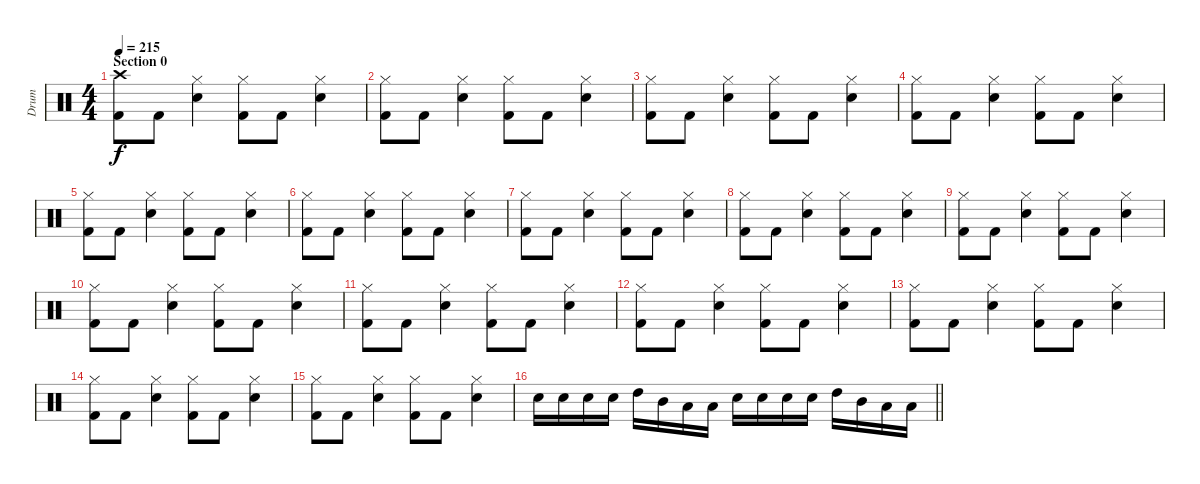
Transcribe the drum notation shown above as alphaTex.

\track ("Drum" "Drum") {instrument percussion}
\staff {score}
\articulation defaults
\ts (4 4)
\section ("" "Section 0")
\tempo 215
\clef neutral
\ks c
("Kick (hit) 2" "Crash high (hit)").8{dy f} "Kick (hit) 2".8 ("Electric Snare (hit)" "Hi-Hat (closed)").4 ("Kick (hit) 2" "Hi-Hat (closed)").8 "Kick (hit) 2".8 ("Electric Snare (hit)" "Hi-Hat (closed)").4 |
("Kick (hit) 2" "Hi-Hat (closed)").8 "Kick (hit) 2".8 ("Electric Snare (hit)" "Hi-Hat (closed)").4 ("Kick (hit) 2" "Hi-Hat (closed)").8 "Kick (hit) 2".8 ("Electric Snare (hit)" "Hi-Hat (closed)").4 |
("Kick (hit) 2" "Hi-Hat (closed)").8 "Kick (hit) 2".8 ("Electric Snare (hit)" "Hi-Hat (closed)").4 ("Kick (hit) 2" "Hi-Hat (closed)").8 "Kick (hit) 2".8 ("Electric Snare (hit)" "Hi-Hat (closed)").4 |
("Kick (hit) 2" "Hi-Hat (closed)").8 "Kick (hit) 2".8 ("Electric Snare (hit)" "Hi-Hat (closed)").4 ("Kick (hit) 2" "Hi-Hat (closed)").8 "Kick (hit) 2".8 ("Electric Snare (hit)" "Hi-Hat (closed)").4 |
("Kick (hit) 2" "Hi-Hat (closed)").8 "Kick (hit) 2".8 ("Electric Snare (hit)" "Hi-Hat (closed)").4 ("Kick (hit) 2" "Hi-Hat (closed)").8 "Kick (hit) 2".8 ("Electric Snare (hit)" "Hi-Hat (closed)").4 |
("Kick (hit) 2" "Hi-Hat (closed)").8 "Kick (hit) 2".8 ("Electric Snare (hit)" "Hi-Hat (closed)").4 ("Kick (hit) 2" "Hi-Hat (closed)").8 "Kick (hit) 2".8 ("Electric Snare (hit)" "Hi-Hat (closed)").4 |
("Kick (hit) 2" "Hi-Hat (closed)").8 "Kick (hit) 2".8 ("Electric Snare (hit)" "Hi-Hat (closed)").4 ("Kick (hit) 2" "Hi-Hat (closed)").8 "Kick (hit) 2".8 ("Electric Snare (hit)" "Hi-Hat (closed)").4 |
("Kick (hit) 2" "Hi-Hat (closed)").8 "Kick (hit) 2".8 ("Electric Snare (hit)" "Hi-Hat (closed)").4 ("Kick (hit) 2" "Hi-Hat (closed)").8 "Kick (hit) 2".8 ("Electric Snare (hit)" "Hi-Hat (closed)").4 |
("Kick (hit) 2" "Hi-Hat (closed)").8 "Kick (hit) 2".8 ("Electric Snare (hit)" "Hi-Hat (closed)").4 ("Kick (hit) 2" "Hi-Hat (closed)").8 "Kick (hit) 2".8 ("Electric Snare (hit)" "Hi-Hat (closed)").4 |
("Kick (hit) 2" "Hi-Hat (closed)").8 "Kick (hit) 2".8 ("Electric Snare (hit)" "Hi-Hat (closed)").4 ("Kick (hit) 2" "Hi-Hat (closed)").8 "Kick (hit) 2".8 ("Electric Snare (hit)" "Hi-Hat (closed)").4 |
("Kick (hit) 2" "Hi-Hat (closed)").8 "Kick (hit) 2".8 ("Electric Snare (hit)" "Hi-Hat (closed)").4 ("Kick (hit) 2" "Hi-Hat (closed)").8 "Kick (hit) 2".8 ("Electric Snare (hit)" "Hi-Hat (closed)").4 |
("Kick (hit) 2" "Hi-Hat (closed)").8 "Kick (hit) 2".8 ("Electric Snare (hit)" "Hi-Hat (closed)").4 ("Kick (hit) 2" "Hi-Hat (closed)").8 "Kick (hit) 2".8 ("Electric Snare (hit)" "Hi-Hat (closed)").4 |
("Kick (hit) 2" "Hi-Hat (closed)").8 "Kick (hit) 2".8 ("Electric Snare (hit)" "Hi-Hat (closed)").4 ("Kick (hit) 2" "Hi-Hat (closed)").8 "Kick (hit) 2".8 ("Electric Snare (hit)" "Hi-Hat (closed)").4 |
("Kick (hit) 2" "Hi-Hat (closed)").8 "Kick (hit) 2".8 ("Electric Snare (hit)" "Hi-Hat (closed)").4 ("Kick (hit) 2" "Hi-Hat (closed)").8 "Kick (hit) 2".8 ("Electric Snare (hit)" "Hi-Hat (closed)").4 |
("Kick (hit) 2" "Hi-Hat (closed)").8 "Kick (hit) 2".8 ("Electric Snare (hit)" "Hi-Hat (closed)").4 ("Kick (hit) 2" "Hi-Hat (closed)").8 "Kick (hit) 2".8 ("Electric Snare (hit)" "Hi-Hat (closed)").4 |
\barLineRight lightlight "Electric Snare (hit)".16 "Electric Snare (hit)".16 "Electric Snare (hit)".16 "Electric Snare (hit)".16 "High Tom (hit)".16 "Mid Tom (hit)".16 "Low Tom (hit)".16 "Low Floor Tom (hit)".16 "Electric Snare (hit)".16 "Electric Snare (hit)".16 "Electric Snare (hit)".16 "Electric Snare (hit)".16 "High Tom (hit)".16 "Mid Tom (hit)".16 "Low Tom (hit)".16 "Low Floor Tom (hit)".16
